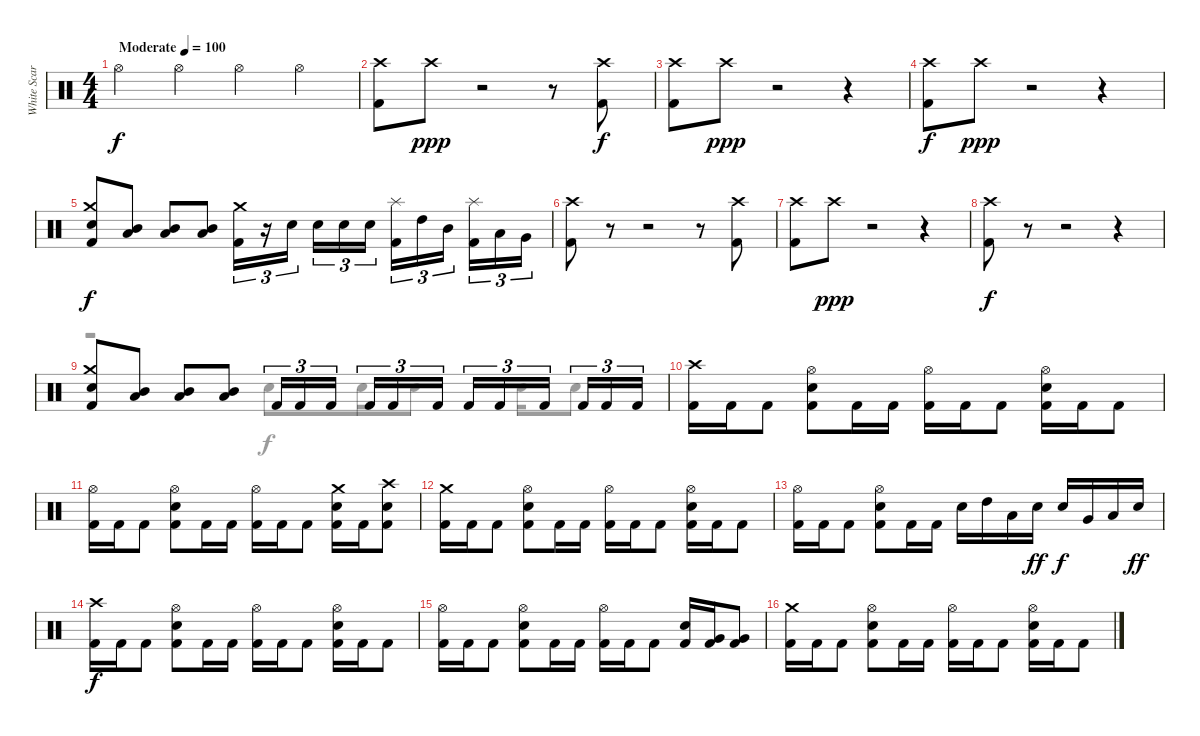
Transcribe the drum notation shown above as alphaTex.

\track ("White Scar" "White Scar") {instrument percussion}
\staff {score}
\articulation defaults
\voice
\ts (4 4)
\tempo (100 "Moderate")
\clef neutral
\ks c "Hi-Hat (open)".4{dy f} "Hi-Hat (open)".4 "Hi-Hat (open)".4 "Hi-Hat (open)".4
|
("Crash high (hit)" "Kick (hit) 2").8 "Crash high (hit)".8{dy ppp} r.2 r.8 ("Crash high (hit)" "Kick (hit) 2").8{dy f} |
("Crash high (hit)" "Kick (hit) 2").8 "Crash high (hit)".8{dy ppp} r.2 r.4 |
("Crash high (hit)" "Kick (hit) 2").8{dy f} "Crash high (hit)".8{dy ppp} r.2 r.4 |
("Crash medium (hit)" "Snare (hit) 2" "Kick (hit) 2").8{dy f} ("Mid Tom (hit)" "Low Tom (hit)").8 ("Mid Tom (hit)" "Low Tom (hit)").8 ("Mid Tom (hit)" "Low Tom (hit)").8 ("Crash medium (hit)" "Kick (hit) 2").16{tu (3 2)} r.16{tu (3 2)} "Snare (hit) 2".16{tu (3 2) beam splitsecondary} "Snare (hit) 2".16{tu (3 2)} "Snare (hit) 2".16{tu (3 2)} "Snare (hit) 2".16{tu (3 2)} ("Splash (hit)" "Kick (hit) 2").16{tu (3 2)} "High Tom (hit)".16{tu (3 2)} "Mid Tom (hit)".16{tu (3 2) beam splitsecondary} ("Splash (hit)" "Kick (hit) 2").16{tu (3 2)} "Low Tom (hit)".16{tu (3 2)} "Very Low Tom (hit)".16{tu (3 2)} |
("Crash high (hit)" "Kick (hit) 2").8 r.8 r.2 r.8 ("Crash high (hit)" "Kick (hit) 2").8 |
("Crash high (hit)" "Kick (hit) 2").8 "Crash high (hit)".8{dy ppp} r.2 r.4 |
("Crash high (hit)" "Kick (hit) 2").8{dy f} r.8 r.2 r.4 |
("Crash medium (hit)" "Snare (hit) 2" "Kick (hit) 2").8 ("Mid Tom (hit)" "Low Tom (hit)").8 ("Mid Tom (hit)" "Low Tom (hit)").8 ("Mid Tom (hit)" "Low Tom (hit)").8 "Kick (hit) 2".16{tu (3 2)} "Kick (hit) 2".16{tu (3 2)} "Kick (hit) 2".16{tu (3 2) beam splitsecondary} "Kick (hit) 2".16{tu (3 2)} "Kick (hit) 2".16{tu (3 2)} "Kick (hit) 2".16{tu (3 2)} "Kick (hit) 2".16{tu (3 2)} "Kick (hit) 2".16{tu (3 2)} "Kick (hit) 2".16{tu (3 2) beam splitsecondary} "Kick (hit) 2".16{tu (3 2)} "Kick (hit) 2".16{tu (3 2)} "Kick (hit) 2".16{tu (3 2)} |
("Crash high (hit)" "Kick (hit) 2").16 "Kick (hit) 2".16 "Kick (hit) 2".8 ("Hi-Hat (open)" "Snare (hit) 2" "Kick (hit) 2").8 "Kick (hit) 2".16 "Kick (hit) 2".16 ("Hi-Hat (open)" "Kick (hit) 2").16 "Kick (hit) 2".16 "Kick (hit) 2".8 ("Hi-Hat (open)" "Snare (hit) 2" "Kick (hit) 2").16 "Kick (hit) 2".16 "Kick (hit) 2".8 |
("Hi-Hat (open)" "Kick (hit) 2").16 "Kick (hit) 2".16 "Kick (hit) 2".8 ("Hi-Hat (open)" "Snare (hit) 2" "Kick (hit) 2").8 "Kick (hit) 2".16 "Kick (hit) 2".16 ("Hi-Hat (open)" "Kick (hit) 2").16 "Kick (hit) 2".16 "Kick (hit) 2".8 ("Crash medium (hit)" "Snare (hit) 2" "Kick (hit) 2").16 "Kick (hit) 2".16 ("Crash high (hit)" "Snare (hit) 2" "Kick (hit) 2").8 |
("Crash medium (hit)" "Kick (hit) 2").16 "Kick (hit) 2".16 "Kick (hit) 2".8 ("Hi-Hat (open)" "Snare (hit) 2" "Kick (hit) 2").8 "Kick (hit) 2".16 "Kick (hit) 2".16 ("Hi-Hat (open)" "Kick (hit) 2").16 "Kick (hit) 2".16 "Kick (hit) 2".8 ("Hi-Hat (open)" "Snare (hit) 2" "Kick (hit) 2").16 "Kick (hit) 2".16 "Kick (hit) 2".8 |
("Hi-Hat (open)" "Kick (hit) 2").16 "Kick (hit) 2".16 "Kick (hit) 2".8 ("Hi-Hat (open)" "Snare (hit) 2" "Kick (hit) 2").8 "Kick (hit) 2".16 "Kick (hit) 2".16 "Snare (hit) 2".16 "High Tom (hit)".16 "Low Tom (hit)".16 "Snare (hit) 2".16{dy ff} "Snare (hit) 2".16{dy f} "Very Low Tom (hit)".16 "Low Floor Tom (hit)".16 "Snare (hit) 2".16{dy ff} |
("Crash high (hit)" "Kick (hit) 2").16{dy f} "Kick (hit) 2".16 "Kick (hit) 2".8 ("Hi-Hat (open)" "Snare (hit) 2" "Kick (hit) 2").8 "Kick (hit) 2".16 "Kick (hit) 2".16 ("Hi-Hat (open)" "Kick (hit) 2").16 "Kick (hit) 2".16 "Kick (hit) 2".8 ("Hi-Hat (open)" "Snare (hit) 2" "Kick (hit) 2").16 "Kick (hit) 2".16 "Kick (hit) 2".8 |
("Hi-Hat (open)" "Kick (hit) 2").16 "Kick (hit) 2".16 "Kick (hit) 2".8 ("Hi-Hat (open)" "Snare (hit) 2" "Kick (hit) 2").8 "Kick (hit) 2".16 "Kick (hit) 2".16 ("Hi-Hat (open)" "Kick (hit) 2").16 "Kick (hit) 2".16 "Kick (hit) 2".8 ("Snare (hit) 2" "Kick (hit) 2").16 ("Very Low Tom (hit)" "Kick (hit) 2").16 ("Very Low Tom (hit)" "Kick (hit) 2").8 |
("Crash medium (hit)" "Kick (hit) 2").16 "Kick (hit) 2".16 "Kick (hit) 2".8 ("Hi-Hat (open)" "Snare (hit) 2" "Kick (hit) 2").8 "Kick (hit) 2".16 "Kick (hit) 2".16 ("Hi-Hat (open)" "Kick (hit) 2").16 "Kick (hit) 2".16 "Kick (hit) 2".8 ("Hi-Hat (open)" "Snare (hit) 2" "Kick (hit) 2").16 "Kick (hit) 2".16 "Kick (hit) 2".8
\voice
\clef neutral
\ottava regular
\simile none
\ks c
|
|
|
|
|
|
|
|
r.2 "Snare (hit) 2".8 "Snare (hit) 2".16 "Snare (hit) 2".8 "Snare (hit) 2".16 "Snare (hit) 2".8 |
|
|
|
|
|
|
